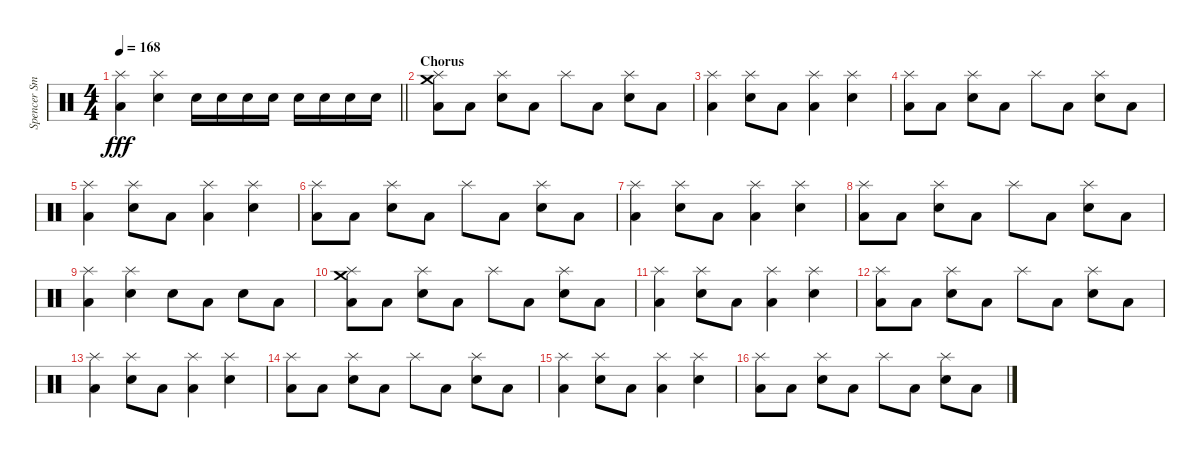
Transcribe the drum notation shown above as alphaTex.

\track ("Spencer Smith" "Spencer Sm") {instrument percussion}
\staff {score}
\articulation defaults
\ts (4 4)
\tempo 168
\clef neutral
\barLineRight lightlight
\ks c
("Splash (hit)" "Low Floor Tom (hit)").4{dy fff} ("Splash (hit)" "Electric Snare (hit)").4 "Electric Snare (hit)".16 "Electric Snare (hit)".16 "Electric Snare (hit)".16 "Electric Snare (hit)".16 "Electric Snare (hit)".16 "Electric Snare (hit)".16 "Electric Snare (hit)".16 "Electric Snare (hit)".16 |
\section ("" "Chorus")
("Crash medium (hit)" "Splash (hit)" "Low Floor Tom (hit)").8 "Low Floor Tom (hit)".8 ("Splash (hit)" "Electric Snare (hit)").8 "Low Floor Tom (hit)".8 "Splash (hit)".8 "Low Floor Tom (hit)".8 ("Splash (hit)" "Electric Snare (hit)").8 "Low Floor Tom (hit)".8 |
("Splash (hit)" "Low Floor Tom (hit)").4 ("Splash (hit)" "Electric Snare (hit)").8 "Low Floor Tom (hit)".8 ("Splash (hit)" "Low Floor Tom (hit)").4 ("Splash (hit)" "Electric Snare (hit)").4 |
("Splash (hit)" "Low Floor Tom (hit)").8 "Low Floor Tom (hit)".8 ("Splash (hit)" "Electric Snare (hit)").8 "Low Floor Tom (hit)".8 "Splash (hit)".8 "Low Floor Tom (hit)".8 ("Splash (hit)" "Electric Snare (hit)").8 "Low Floor Tom (hit)".8 |
("Splash (hit)" "Low Floor Tom (hit)").4 ("Splash (hit)" "Electric Snare (hit)").8 "Low Floor Tom (hit)".8 ("Splash (hit)" "Low Floor Tom (hit)").4 ("Splash (hit)" "Electric Snare (hit)").4 |
("Splash (hit)" "Low Floor Tom (hit)").8 "Low Floor Tom (hit)".8 ("Splash (hit)" "Electric Snare (hit)").8 "Low Floor Tom (hit)".8 "Splash (hit)".8 "Low Floor Tom (hit)".8 ("Splash (hit)" "Electric Snare (hit)").8 "Low Floor Tom (hit)".8 |
("Splash (hit)" "Low Floor Tom (hit)").4 ("Splash (hit)" "Electric Snare (hit)").8 "Low Floor Tom (hit)".8 ("Splash (hit)" "Low Floor Tom (hit)").4 ("Splash (hit)" "Electric Snare (hit)").4 |
("Splash (hit)" "Low Floor Tom (hit)").8 "Low Floor Tom (hit)".8 ("Splash (hit)" "Electric Snare (hit)").8 "Low Floor Tom (hit)".8 "Splash (hit)".8 "Low Floor Tom (hit)".8 ("Splash (hit)" "Electric Snare (hit)").8 "Low Floor Tom (hit)".8 |
("Splash (hit)" "Low Floor Tom (hit)").4 ("Splash (hit)" "Electric Snare (hit)").4 "Snare (hit) 2".8 "Low Floor Tom (hit)".8 "Snare (hit) 2".8 "Low Floor Tom (hit)".8 |
("Crash medium (hit)" "Splash (hit)" "Low Floor Tom (hit)").8 "Low Floor Tom (hit)".8 ("Splash (hit)" "Electric Snare (hit)").8 "Low Floor Tom (hit)".8 "Splash (hit)".8 "Low Floor Tom (hit)".8 ("Splash (hit)" "Electric Snare (hit)").8 "Low Floor Tom (hit)".8 |
("Splash (hit)" "Low Floor Tom (hit)").4 ("Splash (hit)" "Electric Snare (hit)").8 "Low Floor Tom (hit)".8 ("Splash (hit)" "Low Floor Tom (hit)").4 ("Splash (hit)" "Electric Snare (hit)").4 |
("Splash (hit)" "Low Floor Tom (hit)").8 "Low Floor Tom (hit)".8 ("Splash (hit)" "Electric Snare (hit)").8 "Low Floor Tom (hit)".8 "Splash (hit)".8 "Low Floor Tom (hit)".8 ("Splash (hit)" "Electric Snare (hit)").8 "Low Floor Tom (hit)".8 |
("Splash (hit)" "Low Floor Tom (hit)").4 ("Splash (hit)" "Electric Snare (hit)").8 "Low Floor Tom (hit)".8 ("Splash (hit)" "Low Floor Tom (hit)").4 ("Splash (hit)" "Electric Snare (hit)").4 |
("Splash (hit)" "Low Floor Tom (hit)").8 "Low Floor Tom (hit)".8 ("Splash (hit)" "Electric Snare (hit)").8 "Low Floor Tom (hit)".8 "Splash (hit)".8 "Low Floor Tom (hit)".8 ("Splash (hit)" "Electric Snare (hit)").8 "Low Floor Tom (hit)".8 |
("Splash (hit)" "Low Floor Tom (hit)").4 ("Splash (hit)" "Electric Snare (hit)").8 "Low Floor Tom (hit)".8 ("Splash (hit)" "Low Floor Tom (hit)").4 ("Splash (hit)" "Electric Snare (hit)").4 |
("Splash (hit)" "Low Floor Tom (hit)").8 "Low Floor Tom (hit)".8 ("Splash (hit)" "Electric Snare (hit)").8 "Low Floor Tom (hit)".8 "Splash (hit)".8 "Low Floor Tom (hit)".8 ("Splash (hit)" "Electric Snare (hit)").8 "Low Floor Tom (hit)".8
